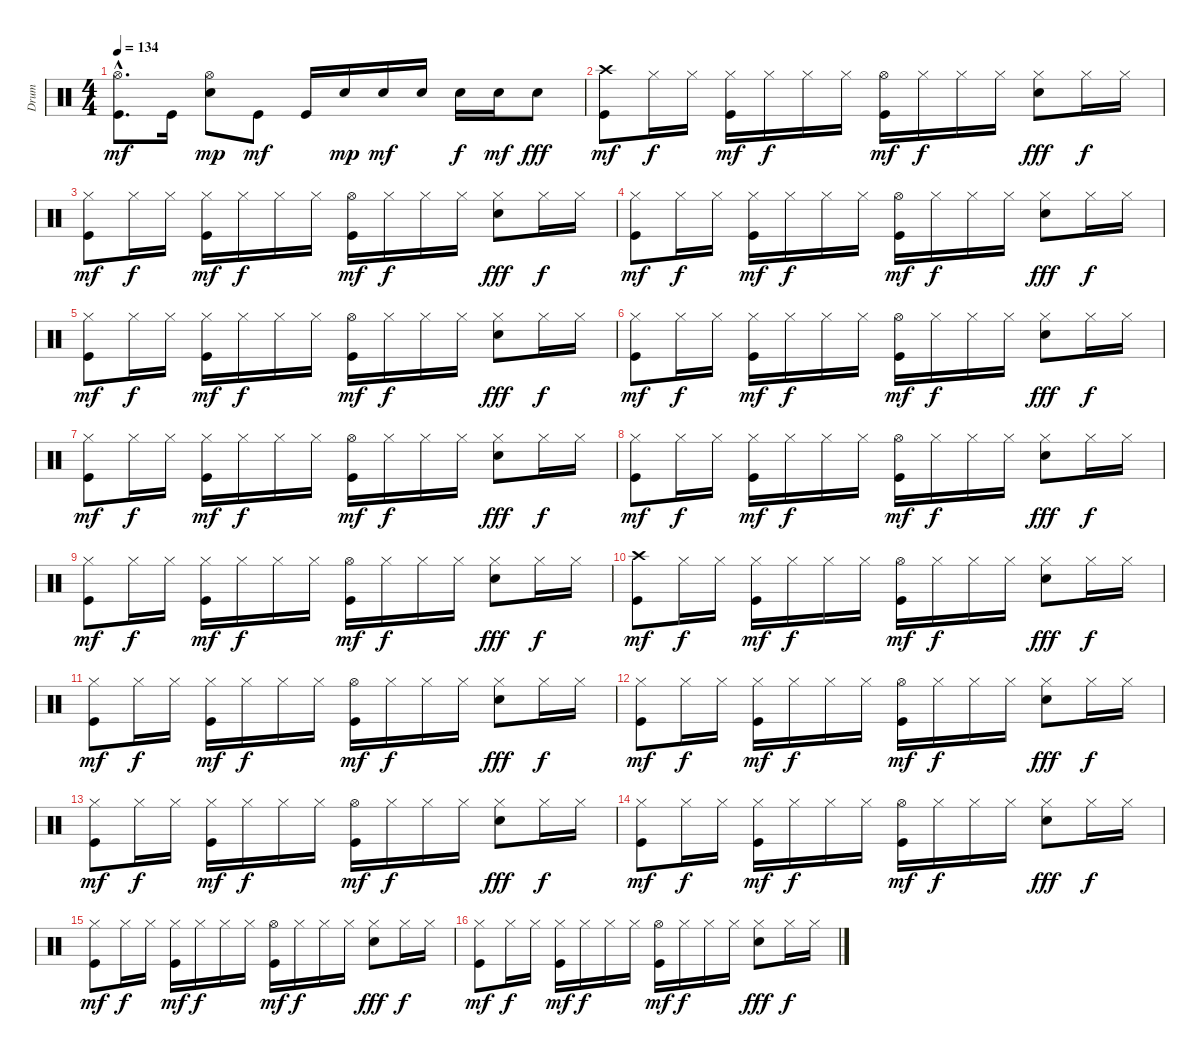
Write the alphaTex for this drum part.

\track ("Drum" "Drum") {instrument percussion}
\staff {score}
\articulation defaults
\ts (4 4)
\tempo 134
\clef neutral
\ks c
("Hi-Hat (open)"{hac} "Kick (hit)"{hac}).8{d dy mf} "Kick (hit)".16 ("Hi-Hat (open)" "Electric Snare (hit)").8{dy mp} "Kick (hit)".8{dy mf} "Kick (hit)".16 "Electric Snare (hit)".16{dy mp} "Electric Snare (hit)".16{dy mf} "Electric Snare (hit)".16 "Electric Snare (hit)".16{dy f} "Electric Snare (hit)".16{dy mf} "Electric Snare (hit)".8{dy fff} |
("Crash high (hit)" "Kick (hit)").8{dy mf} "Hi-Hat (closed)".16{dy f} "Hi-Hat (closed)".16 ("Hi-Hat (closed)" "Kick (hit)").16{dy mf} "Hi-Hat (closed)".16{dy f} "Hi-Hat (closed)".16 "Hi-Hat (closed)".16 ("Hi-Hat (open)" "Kick (hit)").16{dy mf} "Hi-Hat (closed)".16{dy f} "Hi-Hat (closed)".16 "Hi-Hat (closed)".16 ("Hi-Hat (closed)" "Electric Snare (hit)").8{dy fff} "Hi-Hat (closed)".16{dy f} "Hi-Hat (closed)".16 |
("Hi-Hat (closed)" "Kick (hit)").8{dy mf} "Hi-Hat (closed)".16{dy f} "Hi-Hat (closed)".16 ("Hi-Hat (closed)" "Kick (hit)").16{dy mf} "Hi-Hat (closed)".16{dy f} "Hi-Hat (closed)".16 "Hi-Hat (closed)".16 ("Hi-Hat (open)" "Kick (hit)").16{dy mf} "Hi-Hat (closed)".16{dy f} "Hi-Hat (closed)".16 "Hi-Hat (closed)".16 ("Hi-Hat (closed)" "Electric Snare (hit)").8{dy fff} "Hi-Hat (closed)".16{dy f} "Hi-Hat (closed)".16 |
("Hi-Hat (closed)" "Kick (hit)").8{dy mf} "Hi-Hat (closed)".16{dy f} "Hi-Hat (closed)".16 ("Hi-Hat (closed)" "Kick (hit)").16{dy mf} "Hi-Hat (closed)".16{dy f} "Hi-Hat (closed)".16 "Hi-Hat (closed)".16 ("Hi-Hat (open)" "Kick (hit)").16{dy mf} "Hi-Hat (closed)".16{dy f} "Hi-Hat (closed)".16 "Hi-Hat (closed)".16 ("Hi-Hat (closed)" "Electric Snare (hit)").8{dy fff} "Hi-Hat (closed)".16{dy f} "Hi-Hat (closed)".16 |
("Hi-Hat (closed)" "Kick (hit)").8{dy mf} "Hi-Hat (closed)".16{dy f} "Hi-Hat (closed)".16 ("Hi-Hat (closed)" "Kick (hit)").16{dy mf} "Hi-Hat (closed)".16{dy f} "Hi-Hat (closed)".16 "Hi-Hat (closed)".16 ("Hi-Hat (open)" "Kick (hit)").16{dy mf} "Hi-Hat (closed)".16{dy f} "Hi-Hat (closed)".16 "Hi-Hat (closed)".16 ("Hi-Hat (closed)" "Electric Snare (hit)").8{dy fff} "Hi-Hat (closed)".16{dy f} "Hi-Hat (closed)".16 |
("Hi-Hat (closed)" "Kick (hit)").8{dy mf} "Hi-Hat (closed)".16{dy f} "Hi-Hat (closed)".16 ("Hi-Hat (closed)" "Kick (hit)").16{dy mf} "Hi-Hat (closed)".16{dy f} "Hi-Hat (closed)".16 "Hi-Hat (closed)".16 ("Hi-Hat (open)" "Kick (hit)").16{dy mf} "Hi-Hat (closed)".16{dy f} "Hi-Hat (closed)".16 "Hi-Hat (closed)".16 ("Hi-Hat (closed)" "Electric Snare (hit)").8{dy fff} "Hi-Hat (closed)".16{dy f} "Hi-Hat (closed)".16 |
("Hi-Hat (closed)" "Kick (hit)").8{dy mf} "Hi-Hat (closed)".16{dy f} "Hi-Hat (closed)".16 ("Hi-Hat (closed)" "Kick (hit)").16{dy mf} "Hi-Hat (closed)".16{dy f} "Hi-Hat (closed)".16 "Hi-Hat (closed)".16 ("Hi-Hat (open)" "Kick (hit)").16{dy mf} "Hi-Hat (closed)".16{dy f} "Hi-Hat (closed)".16 "Hi-Hat (closed)".16 ("Hi-Hat (closed)" "Electric Snare (hit)").8{dy fff} "Hi-Hat (closed)".16{dy f} "Hi-Hat (closed)".16 |
("Hi-Hat (closed)" "Kick (hit)").8{dy mf} "Hi-Hat (closed)".16{dy f} "Hi-Hat (closed)".16 ("Hi-Hat (closed)" "Kick (hit)").16{dy mf} "Hi-Hat (closed)".16{dy f} "Hi-Hat (closed)".16 "Hi-Hat (closed)".16 ("Hi-Hat (open)" "Kick (hit)").16{dy mf} "Hi-Hat (closed)".16{dy f} "Hi-Hat (closed)".16 "Hi-Hat (closed)".16 ("Hi-Hat (closed)" "Electric Snare (hit)").8{dy fff} "Hi-Hat (closed)".16{dy f} "Hi-Hat (closed)".16 |
("Hi-Hat (closed)" "Kick (hit)").8{dy mf} "Hi-Hat (closed)".16{dy f} "Hi-Hat (closed)".16 ("Hi-Hat (closed)" "Kick (hit)").16{dy mf} "Hi-Hat (closed)".16{dy f} "Hi-Hat (closed)".16 "Hi-Hat (closed)".16 ("Hi-Hat (open)" "Kick (hit)").16{dy mf} "Hi-Hat (closed)".16{dy f} "Hi-Hat (closed)".16 "Hi-Hat (closed)".16 ("Hi-Hat (closed)" "Electric Snare (hit)").8{dy fff} "Hi-Hat (closed)".16{dy f} "Hi-Hat (closed)".16 |
("Crash high (hit)" "Kick (hit)").8{dy mf} "Hi-Hat (closed)".16{dy f} "Hi-Hat (closed)".16 ("Hi-Hat (closed)" "Kick (hit)").16{dy mf} "Hi-Hat (closed)".16{dy f} "Hi-Hat (closed)".16 "Hi-Hat (closed)".16 ("Hi-Hat (open)" "Kick (hit)").16{dy mf} "Hi-Hat (closed)".16{dy f} "Hi-Hat (closed)".16 "Hi-Hat (closed)".16 ("Hi-Hat (closed)" "Electric Snare (hit)").8{dy fff} "Hi-Hat (closed)".16{dy f} "Hi-Hat (closed)".16 |
("Hi-Hat (closed)" "Kick (hit)").8{dy mf} "Hi-Hat (closed)".16{dy f} "Hi-Hat (closed)".16 ("Hi-Hat (closed)" "Kick (hit)").16{dy mf} "Hi-Hat (closed)".16{dy f} "Hi-Hat (closed)".16 "Hi-Hat (closed)".16 ("Hi-Hat (open)" "Kick (hit)").16{dy mf} "Hi-Hat (closed)".16{dy f} "Hi-Hat (closed)".16 "Hi-Hat (closed)".16 ("Hi-Hat (closed)" "Electric Snare (hit)").8{dy fff} "Hi-Hat (closed)".16{dy f} "Hi-Hat (closed)".16 |
("Hi-Hat (closed)" "Kick (hit)").8{dy mf} "Hi-Hat (closed)".16{dy f} "Hi-Hat (closed)".16 ("Hi-Hat (closed)" "Kick (hit)").16{dy mf} "Hi-Hat (closed)".16{dy f} "Hi-Hat (closed)".16 "Hi-Hat (closed)".16 ("Hi-Hat (open)" "Kick (hit)").16{dy mf} "Hi-Hat (closed)".16{dy f} "Hi-Hat (closed)".16 "Hi-Hat (closed)".16 ("Hi-Hat (closed)" "Electric Snare (hit)").8{dy fff} "Hi-Hat (closed)".16{dy f} "Hi-Hat (closed)".16 |
("Hi-Hat (closed)" "Kick (hit)").8{dy mf} "Hi-Hat (closed)".16{dy f} "Hi-Hat (closed)".16 ("Hi-Hat (closed)" "Kick (hit)").16{dy mf} "Hi-Hat (closed)".16{dy f} "Hi-Hat (closed)".16 "Hi-Hat (closed)".16 ("Hi-Hat (open)" "Kick (hit)").16{dy mf} "Hi-Hat (closed)".16{dy f} "Hi-Hat (closed)".16 "Hi-Hat (closed)".16 ("Hi-Hat (closed)" "Electric Snare (hit)").8{dy fff} "Hi-Hat (closed)".16{dy f} "Hi-Hat (closed)".16 |
("Hi-Hat (closed)" "Kick (hit)").8{dy mf} "Hi-Hat (closed)".16{dy f} "Hi-Hat (closed)".16 ("Hi-Hat (closed)" "Kick (hit)").16{dy mf} "Hi-Hat (closed)".16{dy f} "Hi-Hat (closed)".16 "Hi-Hat (closed)".16 ("Hi-Hat (open)" "Kick (hit)").16{dy mf} "Hi-Hat (closed)".16{dy f} "Hi-Hat (closed)".16 "Hi-Hat (closed)".16 ("Hi-Hat (closed)" "Electric Snare (hit)").8{dy fff} "Hi-Hat (closed)".16{dy f} "Hi-Hat (closed)".16 |
("Hi-Hat (closed)" "Kick (hit)").8{dy mf} "Hi-Hat (closed)".16{dy f} "Hi-Hat (closed)".16 ("Hi-Hat (closed)" "Kick (hit)").16{dy mf} "Hi-Hat (closed)".16{dy f} "Hi-Hat (closed)".16 "Hi-Hat (closed)".16 ("Hi-Hat (open)" "Kick (hit)").16{dy mf} "Hi-Hat (closed)".16{dy f} "Hi-Hat (closed)".16 "Hi-Hat (closed)".16 ("Hi-Hat (closed)" "Electric Snare (hit)").8{dy fff} "Hi-Hat (closed)".16{dy f} "Hi-Hat (closed)".16 |
("Hi-Hat (closed)" "Kick (hit)").8{dy mf} "Hi-Hat (closed)".16{dy f} "Hi-Hat (closed)".16 ("Hi-Hat (closed)" "Kick (hit)").16{dy mf} "Hi-Hat (closed)".16{dy f} "Hi-Hat (closed)".16 "Hi-Hat (closed)".16 ("Hi-Hat (open)" "Kick (hit)").16{dy mf} "Hi-Hat (closed)".16{dy f} "Hi-Hat (closed)".16 "Hi-Hat (closed)".16 ("Hi-Hat (closed)" "Electric Snare (hit)").8{dy fff} "Hi-Hat (closed)".16{dy f} "Hi-Hat (closed)".16
